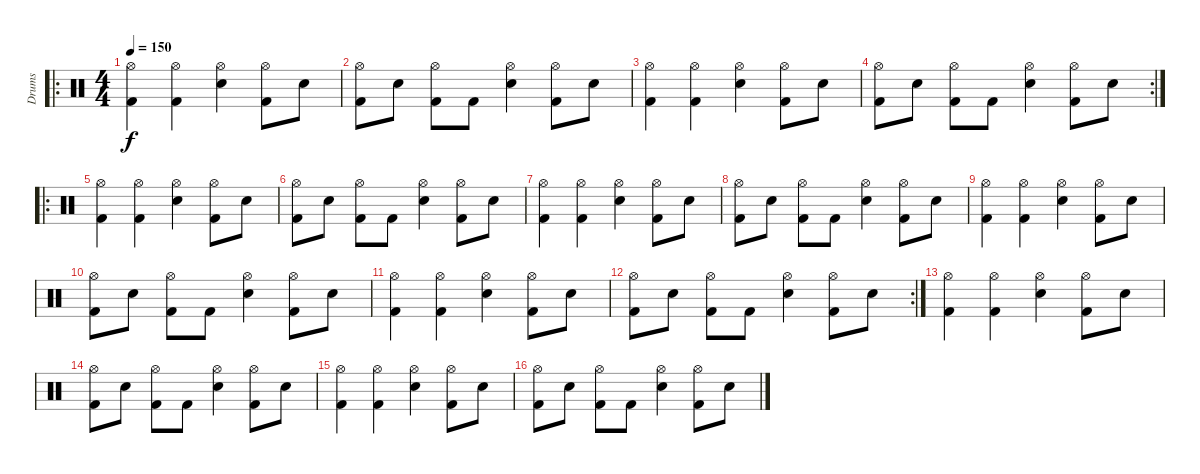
\track ("Drums" "Drums") {instrument percussion}
\staff {score}
\articulation defaults
\ro
\ts (4 4)
\tempo 150
\clef neutral
\ks c
("Hi-Hat (open)" "Kick (hit) 2").4{dy f} ("Hi-Hat (open)" "Kick (hit) 2").4 ("Hi-Hat (open)" "Snare (hit) 2").4 ("Hi-Hat (open)" "Kick (hit) 2").8 "Snare (hit) 2".8 |
("Hi-Hat (open)" "Kick (hit) 2").8 "Snare (hit) 2".8 ("Hi-Hat (open)" "Kick (hit) 2").8 "Kick (hit) 2".8 ("Hi-Hat (open)" "Snare (hit) 2").4 ("Hi-Hat (open)" "Kick (hit) 2").8 "Snare (hit) 2".8 |
("Hi-Hat (open)" "Kick (hit) 2").4 ("Hi-Hat (open)" "Kick (hit) 2").4 ("Hi-Hat (open)" "Snare (hit) 2").4 ("Hi-Hat (open)" "Kick (hit) 2").8 "Snare (hit) 2".8 |
\rc 2
("Hi-Hat (open)" "Kick (hit) 2").8 "Snare (hit) 2".8 ("Hi-Hat (open)" "Kick (hit) 2").8 "Kick (hit) 2".8 ("Hi-Hat (open)" "Snare (hit) 2").4 ("Hi-Hat (open)" "Kick (hit) 2").8 "Snare (hit) 2".8 |
\ro
("Hi-Hat (open)" "Kick (hit) 2").4 ("Hi-Hat (open)" "Kick (hit) 2").4 ("Hi-Hat (open)" "Snare (hit) 2").4 ("Hi-Hat (open)" "Kick (hit) 2").8 "Snare (hit) 2".8 |
("Hi-Hat (open)" "Kick (hit) 2").8 "Snare (hit) 2".8 ("Hi-Hat (open)" "Kick (hit) 2").8 "Kick (hit) 2".8 ("Hi-Hat (open)" "Snare (hit) 2").4 ("Hi-Hat (open)" "Kick (hit) 2").8 "Snare (hit) 2".8 |
("Hi-Hat (open)" "Kick (hit) 2").4 ("Hi-Hat (open)" "Kick (hit) 2").4 ("Hi-Hat (open)" "Snare (hit) 2").4 ("Hi-Hat (open)" "Kick (hit) 2").8 "Snare (hit) 2".8 |
("Hi-Hat (open)" "Kick (hit) 2").8 "Snare (hit) 2".8 ("Hi-Hat (open)" "Kick (hit) 2").8 "Kick (hit) 2".8 ("Hi-Hat (open)" "Snare (hit) 2").4 ("Hi-Hat (open)" "Kick (hit) 2").8 "Snare (hit) 2".8 |
("Hi-Hat (open)" "Kick (hit) 2").4 ("Hi-Hat (open)" "Kick (hit) 2").4 ("Hi-Hat (open)" "Snare (hit) 2").4 ("Hi-Hat (open)" "Kick (hit) 2").8 "Snare (hit) 2".8 |
("Hi-Hat (open)" "Kick (hit) 2").8 "Snare (hit) 2".8 ("Hi-Hat (open)" "Kick (hit) 2").8 "Kick (hit) 2".8 ("Hi-Hat (open)" "Snare (hit) 2").4 ("Hi-Hat (open)" "Kick (hit) 2").8 "Snare (hit) 2".8 |
("Hi-Hat (open)" "Kick (hit) 2").4 ("Hi-Hat (open)" "Kick (hit) 2").4 ("Hi-Hat (open)" "Snare (hit) 2").4 ("Hi-Hat (open)" "Kick (hit) 2").8 "Snare (hit) 2".8 |
\rc 2
("Hi-Hat (open)" "Kick (hit) 2").8 "Snare (hit) 2".8 ("Hi-Hat (open)" "Kick (hit) 2").8 "Kick (hit) 2".8 ("Hi-Hat (open)" "Snare (hit) 2").4 ("Hi-Hat (open)" "Kick (hit) 2").8 "Snare (hit) 2".8 |
("Hi-Hat (open)" "Kick (hit) 2").4 ("Hi-Hat (open)" "Kick (hit) 2").4 ("Hi-Hat (open)" "Snare (hit) 2").4 ("Hi-Hat (open)" "Kick (hit) 2").8 "Snare (hit) 2".8 |
("Hi-Hat (open)" "Kick (hit) 2").8 "Snare (hit) 2".8 ("Hi-Hat (open)" "Kick (hit) 2").8 "Kick (hit) 2".8 ("Hi-Hat (open)" "Snare (hit) 2").4 ("Hi-Hat (open)" "Kick (hit) 2").8 "Snare (hit) 2".8 |
("Hi-Hat (open)" "Kick (hit) 2").4 ("Hi-Hat (open)" "Kick (hit) 2").4 ("Hi-Hat (open)" "Snare (hit) 2").4 ("Hi-Hat (open)" "Kick (hit) 2").8 "Snare (hit) 2".8 |
("Hi-Hat (open)" "Kick (hit) 2").8 "Snare (hit) 2".8 ("Hi-Hat (open)" "Kick (hit) 2").8 "Kick (hit) 2".8 ("Hi-Hat (open)" "Snare (hit) 2").4 ("Hi-Hat (open)" "Kick (hit) 2").8 "Snare (hit) 2".8
